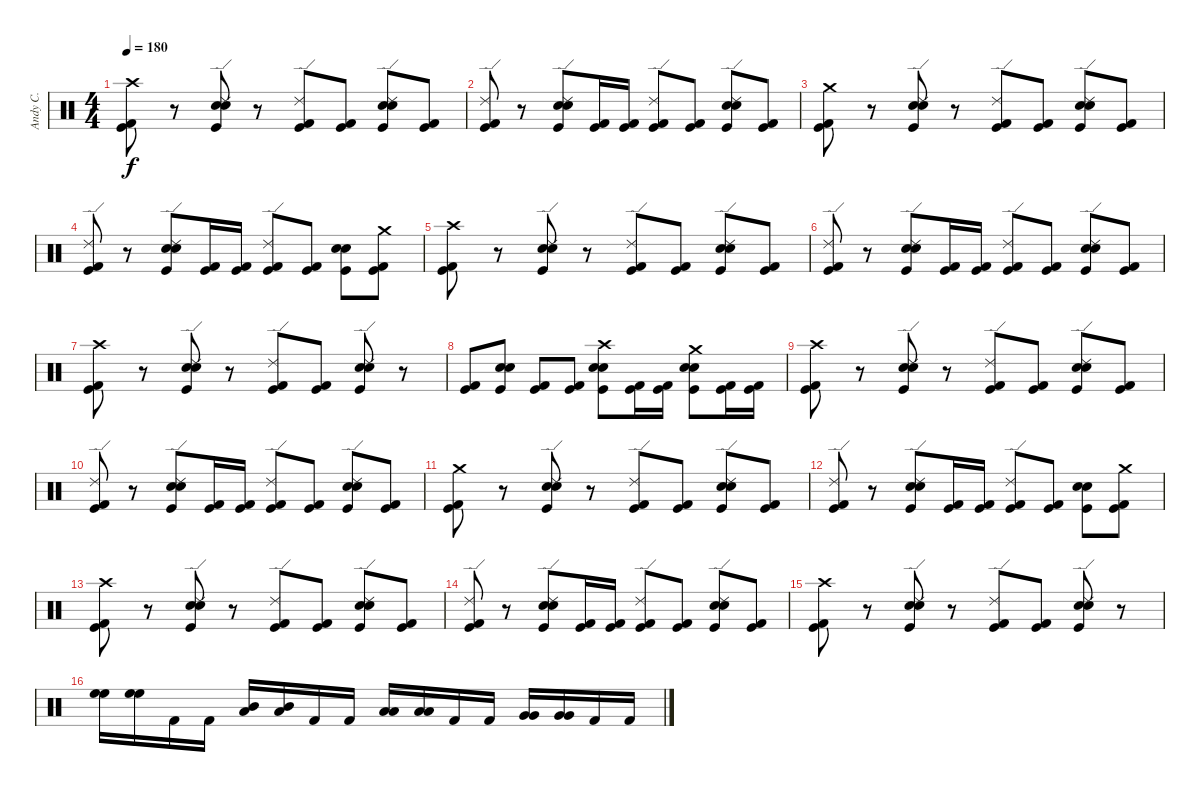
\track ("Andy C." "Andy C.") {instrument percussion}
\staff {score}
\articulation defaults
\ts (4 4)
\tempo 180
\clef neutral
\ks c
("Crash high (hit)" "Kick (hit)" "Kick (hit) 2").8{dy f} r.8 ("Ride (edge) 2" "Kick (hit)" "Snare (hit) 2" "Electric Snare (hit)").8 r.8 ("Ride (edge) 2" "Kick (hit)" "Kick (hit) 2").8 ("Kick (hit)" "Kick (hit) 2").8 ("Ride (edge) 2" "Kick (hit)" "Snare (hit) 2" "Electric Snare (hit)").8 ("Kick (hit)" "Kick (hit) 2").8 |
("Ride (edge) 2" "Kick (hit)" "Kick (hit) 2").8 r.8 ("Ride (edge) 2" "Kick (hit)" "Snare (hit) 2" "Electric Snare (hit)").8 ("Kick (hit)" "Kick (hit) 2").16 ("Kick (hit)" "Kick (hit) 2").16 ("Ride (edge) 2" "Kick (hit)" "Kick (hit) 2").8 ("Kick (hit)" "Kick (hit) 2").8 ("Ride (edge) 2" "Kick (hit)" "Snare (hit) 2" "Electric Snare (hit)").8 ("Kick (hit)" "Kick (hit) 2").8 |
("Crash medium (hit)" "Kick (hit)" "Kick (hit) 2").8 r.8 ("Ride (edge) 2" "Snare (hit) 2" "Kick (hit)" "Electric Snare (hit)").8 r.8 ("Ride (edge) 2" "Kick (hit)" "Kick (hit) 2").8 ("Kick (hit)" "Kick (hit) 2").8 ("Ride (edge) 2" "Kick (hit)" "Snare (hit) 2" "Electric Snare (hit)").8 ("Kick (hit)" "Kick (hit) 2").8 |
("Ride (edge) 2" "Kick (hit)" "Kick (hit) 2").8 r.8 ("Ride (edge) 2" "Snare (hit) 2" "Kick (hit)" "Electric Snare (hit)").8 ("Kick (hit)" "Kick (hit) 2").16 ("Kick (hit)" "Kick (hit) 2").16 ("Ride (edge) 2" "Kick (hit)" "Kick (hit) 2").8 ("Kick (hit)" "Kick (hit) 2").8 ("Kick (hit)" "Snare (hit) 2" "Electric Snare (hit)").8 ("Crash medium (hit)" "Kick (hit)" "Kick (hit) 2").8 |
("Crash high (hit)" "Kick (hit)" "Kick (hit) 2").8 r.8 ("Ride (edge) 2" "Kick (hit)" "Snare (hit) 2" "Electric Snare (hit)").8 r.8 ("Ride (edge) 2" "Kick (hit)" "Kick (hit) 2").8 ("Kick (hit)" "Kick (hit) 2").8 ("Ride (edge) 2" "Kick (hit)" "Snare (hit) 2" "Electric Snare (hit)").8 ("Kick (hit)" "Kick (hit) 2").8 |
("Ride (edge) 2" "Kick (hit)" "Kick (hit) 2").8 r.8 ("Ride (edge) 2" "Snare (hit) 2" "Kick (hit)" "Electric Snare (hit)").8 ("Kick (hit)" "Kick (hit) 2").16 ("Kick (hit)" "Kick (hit) 2").16 ("Ride (edge) 2" "Kick (hit)" "Kick (hit) 2").8 ("Kick (hit)" "Kick (hit) 2").8 ("Ride (edge) 2" "Kick (hit)" "Snare (hit) 2" "Electric Snare (hit)").8 ("Kick (hit)" "Kick (hit) 2").8 |
("Crash high (hit)" "Kick (hit)" "Kick (hit) 2").8 r.8 ("Ride (edge) 2" "Snare (hit) 2" "Kick (hit)" "Electric Snare (hit)").8 r.8 ("Ride (edge) 2" "Kick (hit)" "Kick (hit) 2").8 ("Kick (hit)" "Kick (hit) 2").8 ("Ride (edge) 2" "Snare (hit) 2" "Kick (hit)" "Electric Snare (hit)").8 r.8 |
("Kick (hit)" "Kick (hit) 2").8 ("Kick (hit)" "Snare (hit) 2" "Electric Snare (hit)").8 ("Kick (hit)" "Kick (hit) 2").8 ("Kick (hit)" "Kick (hit) 2").8 ("Crash high (hit)" "Snare (hit) 2" "Kick (hit)" "Electric Snare (hit)").8 ("Kick (hit)" "Kick (hit) 2").16 ("Kick (hit)" "Kick (hit) 2").16 ("Crash medium (hit)" "Snare (hit) 2" "Kick (hit)" "Electric Snare (hit)").8 ("Kick (hit)" "Kick (hit) 2").16 ("Kick (hit)" "Kick (hit) 2").16 |
("Crash high (hit)" "Kick (hit)" "Kick (hit) 2").8 r.8 ("Ride (edge) 2" "Kick (hit)" "Snare (hit) 2" "Electric Snare (hit)").8 r.8 ("Ride (edge) 2" "Kick (hit)" "Kick (hit) 2").8 ("Kick (hit)" "Kick (hit) 2").8 ("Ride (edge) 2" "Kick (hit)" "Snare (hit) 2" "Electric Snare (hit)").8 ("Kick (hit)" "Kick (hit) 2").8 |
("Ride (edge) 2" "Kick (hit)" "Kick (hit) 2").8 r.8 ("Ride (edge) 2" "Kick (hit)" "Snare (hit) 2" "Electric Snare (hit)").8 ("Kick (hit)" "Kick (hit) 2").16 ("Kick (hit)" "Kick (hit) 2").16 ("Ride (edge) 2" "Kick (hit)" "Kick (hit) 2").8 ("Kick (hit)" "Kick (hit) 2").8 ("Ride (edge) 2" "Kick (hit)" "Snare (hit) 2" "Electric Snare (hit)").8 ("Kick (hit)" "Kick (hit) 2").8 |
("Crash medium (hit)" "Kick (hit)" "Kick (hit) 2").8 r.8 ("Ride (edge) 2" "Kick (hit)" "Snare (hit) 2" "Electric Snare (hit)").8 r.8 ("Ride (edge) 2" "Kick (hit)" "Kick (hit) 2").8 ("Kick (hit)" "Kick (hit) 2").8 ("Ride (edge) 2" "Kick (hit)" "Snare (hit) 2" "Electric Snare (hit)").8 ("Kick (hit)" "Kick (hit) 2").8 |
("Ride (edge) 2" "Kick (hit)" "Kick (hit) 2").8 r.8 ("Ride (edge) 2" "Kick (hit)" "Snare (hit) 2" "Electric Snare (hit)").8 ("Kick (hit)" "Kick (hit) 2").16 ("Kick (hit)" "Kick (hit) 2").16 ("Ride (edge) 2" "Kick (hit)" "Kick (hit) 2").8 ("Kick (hit)" "Kick (hit) 2").8 ("Kick (hit)" "Snare (hit) 2" "Electric Snare (hit)").8 ("Crash medium (hit)" "Kick (hit)" "Kick (hit) 2").8 |
("Crash high (hit)" "Kick (hit)" "Kick (hit) 2").8 r.8 ("Ride (edge) 2" "Kick (hit)" "Snare (hit) 2" "Electric Snare (hit)").8 r.8 ("Ride (edge) 2" "Kick (hit)" "Kick (hit) 2").8 ("Kick (hit)" "Kick (hit) 2").8 ("Ride (edge) 2" "Kick (hit)" "Snare (hit) 2" "Electric Snare (hit)").8 ("Kick (hit)" "Kick (hit) 2").8 |
("Ride (edge) 2" "Kick (hit)" "Kick (hit) 2").8 r.8 ("Ride (edge) 2" "Snare (hit) 2" "Kick (hit)" "Electric Snare (hit)").8 ("Kick (hit)" "Kick (hit) 2").16 ("Kick (hit)" "Kick (hit) 2").16 ("Ride (edge) 2" "Kick (hit)" "Kick (hit) 2").8 ("Kick (hit)" "Kick (hit) 2").8 ("Ride (edge) 2" "Kick (hit)" "Snare (hit) 2" "Electric Snare (hit)").8 ("Kick (hit)" "Kick (hit) 2").8 |
("Crash high (hit)" "Kick (hit)" "Kick (hit) 2").8 r.8 ("Ride (edge) 2" "Snare (hit) 2" "Kick (hit)" "Electric Snare (hit)").8 r.8 ("Ride (edge) 2" "Kick (hit)" "Kick (hit) 2").8 ("Kick (hit)" "Kick (hit) 2").8 ("Ride (edge) 2" "Kick (hit)" "Snare (hit) 2" "Electric Snare (hit)").8 r.8 |
("High Floor Tom (hit)" "High Floor Tom (hit)").16 ("High Floor Tom (hit)" "High Floor Tom (hit)").16 "Kick (hit) 2".16 "Kick (hit) 2".16 ("Low Tom (hit)" "Mid Tom (hit)").16 ("Low Tom (hit)" "Mid Tom (hit)").16 "Kick (hit) 2".16 "Kick (hit) 2".16 ("Low Tom (hit)" "Low Tom (hit)").16 ("Low Tom (hit)" "Low Tom (hit)").16 "Kick (hit) 2".16 "Kick (hit) 2".16 ("Very Low Tom (hit)" "Very Low Tom (hit)").16 ("Very Low Tom (hit)" "Very Low Tom (hit)").16 "Kick (hit) 2".16 "Kick (hit) 2".16
